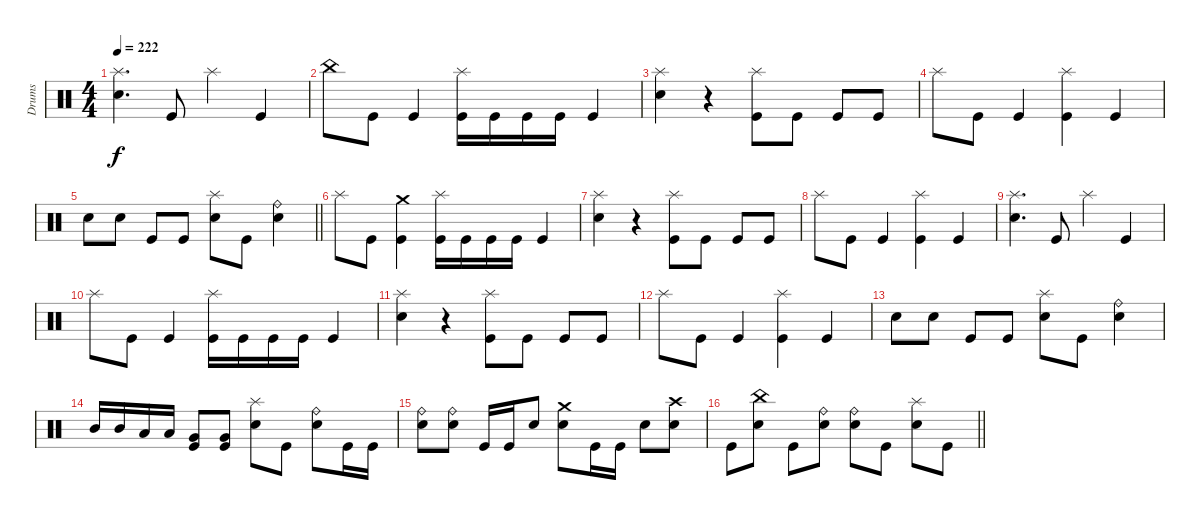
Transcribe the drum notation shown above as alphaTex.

\track ("Drums" "Drums") {instrument percussion}
\staff
\articulation defaults
\ts (4 4)
\tempo 222
\clef neutral
\ks c
("Splash (hit)" "Electric Snare (hit)").4{d dy f} "Kick (hit)".8 "Splash (hit)".4 "Kick (hit)".4 |
"China (hit)".8 "Kick (hit)".8 "Kick (hit)".4 ("Splash (hit)" "Kick (hit)").16 "Kick (hit)".16 "Kick (hit)".16 "Kick (hit)".16 "Kick (hit)".4 |
("Splash (hit)" "Electric Snare (hit)").4 r.4 ("Splash (hit)" "Kick (hit)").8 "Kick (hit)".8 "Kick (hit)".8 "Kick (hit)".8 |
"Splash (hit)".8 "Kick (hit)".8 "Kick (hit)".4 ("Splash (hit)" "Kick (hit)").4 "Kick (hit)".4 |
\barLineRight lightlight "Electric Snare (hit)".8 "Electric Snare (hit)".8 "Kick (hit)".8 "Kick (hit)".8
("Splash (hit)" "Electric Snare (hit)").8 "Kick (hit)".8 ("Ride (bell)" "Electric Snare (hit)").4 |
"Splash (hit)".8 "Kick (hit)".8 ("Crash medium (hit)" "Kick (hit)").4 ("Splash (hit)" "Kick (hit)").16 "Kick (hit)".16 "Kick (hit)".16 "Kick (hit)".16 "Kick (hit)".4 |
("Splash (hit)" "Electric Snare (hit)").4 r.4 ("Splash (hit)" "Kick (hit)").8 "Kick (hit)".8 "Kick (hit)".8 "Kick (hit)".8 |
"Splash (hit)".8 "Kick (hit)".8 "Kick (hit)".4 ("Splash (hit)" "Kick (hit)").4 "Kick (hit)".4 |
("Splash (hit)" "Electric Snare (hit)").4{d} "Kick (hit)".8 "Splash (hit)".4 "Kick (hit)".4 |
"Splash (hit)".8 "Kick (hit)".8 "Kick (hit)".4 ("Splash (hit)" "Kick (hit)").16 "Kick (hit)".16 "Kick (hit)".16 "Kick (hit)".16 "Kick (hit)".4 |
("Splash (hit)" "Electric Snare (hit)").4 r.4 ("Splash (hit)" "Kick (hit)").8 "Kick (hit)".8 "Kick (hit)".8 "Kick (hit)".8 |
"Splash (hit)".8 "Kick (hit)".8 "Kick (hit)".4 ("Splash (hit)" "Kick (hit)").4 "Kick (hit)".4 |
"Electric Snare (hit)".8 "Electric Snare (hit)".8 "Kick (hit)".8 "Kick (hit)".8 ("Splash (hit)" "Electric Snare (hit)").8 "Kick (hit)".8 ("Ride (bell)" "Electric Snare (hit)").4 |
"Mid Tom (hit)".16 "Mid Tom (hit)".16 "Low Tom (hit)".16 "Low Tom (hit)".16 ("Very Low Tom (hit)" "Kick (hit)").8 ("Very Low Tom (hit)" "Kick (hit)").8 ("Splash (hit)" "Electric Snare (hit)").8 "Kick (hit)".8 ("Ride (bell)" "Electric Snare (hit)").8 "Kick (hit)".16 "Kick (hit)".16 |
("Ride (bell)" "Electric Snare (hit)").8 ("Ride (bell)" "Electric Snare (hit)").8 "Kick (hit)".16 "Kick (hit)".16 "Electric Snare (hit)".8 ("Crash medium (hit)" "Electric Snare (hit)").8 "Kick (hit)".16 "Kick (hit)".16 "Electric Snare (hit)".8 ("Crash high (hit)" "Electric Snare (hit)").8 |
\barLineRight lightlight "Kick (hit)".8
("China (hit)" "Electric Snare (hit)").8 "Kick (hit)".8 ("Ride (bell)" "Electric Snare (hit)").8 ("Ride (bell)" "Electric Snare (hit)").8 "Kick (hit)".8 ("Splash (hit)" "Electric Snare (hit)").8 "Kick (hit)".8
